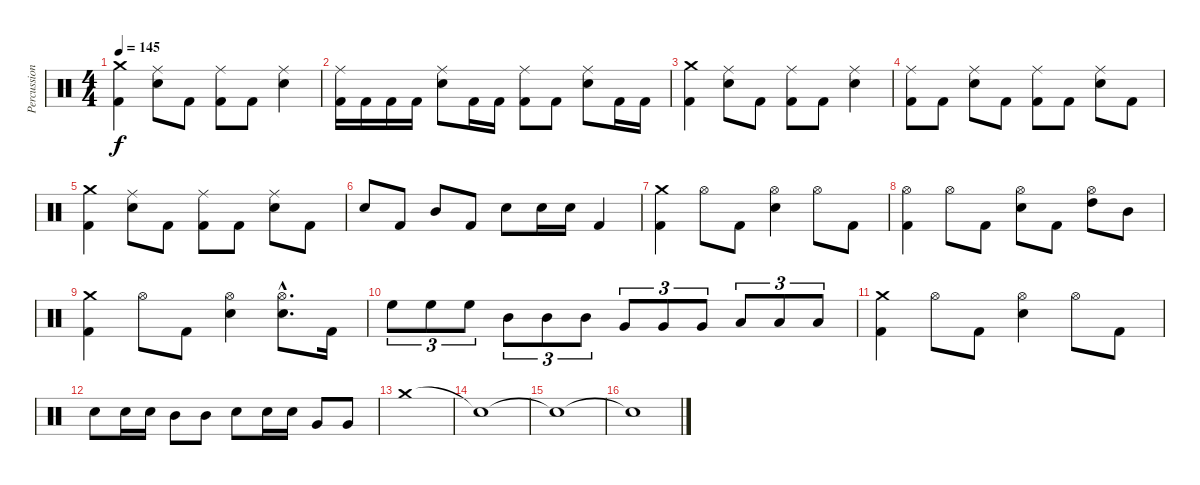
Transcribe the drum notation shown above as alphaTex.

\track ("Percussion" "Percussion") {instrument percussion}
\staff {score}
\articulation defaults
\ts (4 4)
\tempo 145
\clef neutral
\ks c
("Crash medium (hit)" "Kick (hit) 2").4{dy f} ("Ride (middle)" "Snare (hit) 2").8 "Kick (hit) 2".8 ("Ride (middle)" "Kick (hit) 2").8 "Kick (hit) 2".8 ("Ride (middle)" "Snare (hit) 2").4 |
("Ride (middle)" "Kick (hit) 2").16 "Kick (hit) 2".16 "Kick (hit) 2".16 "Kick (hit) 2".16 ("Ride (middle)" "Snare (hit) 2").8 "Kick (hit) 2".16 "Kick (hit) 2".16 ("Ride (middle)" "Kick (hit) 2").8 "Kick (hit) 2".8 ("Ride (middle)" "Snare (hit) 2").8 "Kick (hit) 2".16 "Kick (hit) 2".16 |
("Crash medium (hit)" "Kick (hit) 2").4 ("Ride (middle)" "Snare (hit) 2").8 "Kick (hit) 2".8 ("Ride (middle)" "Kick (hit) 2").8 "Kick (hit) 2".8 ("Ride (middle)" "Snare (hit) 2").4 |
("Ride (middle)" "Kick (hit) 2").8 "Kick (hit) 2".8 ("Ride (middle)" "Snare (hit) 2").8 "Kick (hit) 2".8 ("Ride (middle)" "Kick (hit) 2").8 "Kick (hit) 2".8 ("Ride (middle)" "Snare (hit) 2").8 "Kick (hit) 2".8 |
("Crash medium (hit)" "Kick (hit) 2").4 ("Ride (middle)" "Snare (hit) 2").8 "Kick (hit) 2".8 ("Ride (middle)" "Kick (hit) 2").8 "Kick (hit) 2".8 ("Ride (middle)" "Snare (hit) 2").8 "Kick (hit) 2".8 |
"Snare (hit) 2".8 "Kick (hit) 2".8 "Mid Tom (hit)".8 "Kick (hit) 2".8 "Snare (hit) 2".8 "Snare (hit) 2".16 "Snare (hit) 2".16 "Kick (hit) 2".4 |
("Crash medium (hit)" "Kick (hit) 2").4 "Hi-Hat (open)".8 "Kick (hit) 2".8 ("Hi-Hat (open)" "Snare (hit) 2").4 "Hi-Hat (open)".8 "Kick (hit) 2".8 |
("Hi-Hat (open)" "Kick (hit) 2").4 "Hi-Hat (open)".8 "Kick (hit) 2".8 ("Hi-Hat (open)" "Snare (hit) 2").8 "Kick (hit) 2".8 ("Hi-Hat (open)" "High Tom (hit)").8 "Mid Tom (hit)".8 |
("Crash medium (hit)" "Kick (hit) 2").4 "Hi-Hat (open)".8 "Kick (hit) 2".8 ("Hi-Hat (open)" "Snare (hit) 2").4 ("Hi-Hat (open)"{hac} "Snare (hit) 2"{hac}).8{d} "Kick (hit) 2".16 |
"High Floor Tom (hit)".8{tu (3 2)} "High Floor Tom (hit)".8{tu (3 2)} "High Floor Tom (hit)".8{tu (3 2)} "Mid Tom (hit)".8{tu (3 2)} "Mid Tom (hit)".8{tu (3 2)} "Mid Tom (hit)".8{tu (3 2)} "Very Low Tom (hit)".8{tu (3 2)} "Very Low Tom (hit)".8{tu (3 2)} "Very Low Tom (hit)".8{tu (3 2)} "Low Floor Tom (hit)".8{tu (3 2)} "Low Floor Tom (hit)".8{tu (3 2)} "Low Floor Tom (hit)".8{tu (3 2)} |
("Crash medium (hit)" "Kick (hit) 2").4 "Hi-Hat (open)".8 "Kick (hit) 2".8 ("Hi-Hat (open)" "Snare (hit) 2").4 "Hi-Hat (open)".8 "Kick (hit) 2".8 |
"Snare (hit) 2".8 "Snare (hit) 2".16 "Snare (hit) 2".16 "Mid Tom (hit)".8 "Mid Tom (hit)".8 "Snare (hit) 2".8 "Snare (hit) 2".16 "Snare (hit) 2".16 "Very Low Tom (hit)".8 "Very Low Tom (hit)".8 |
"Crash medium (hit)".1 |
"Snare (hit)"{t}.1 |
"Snare (hit)"{t}.1 |
"Snare (hit)"{t}.1
